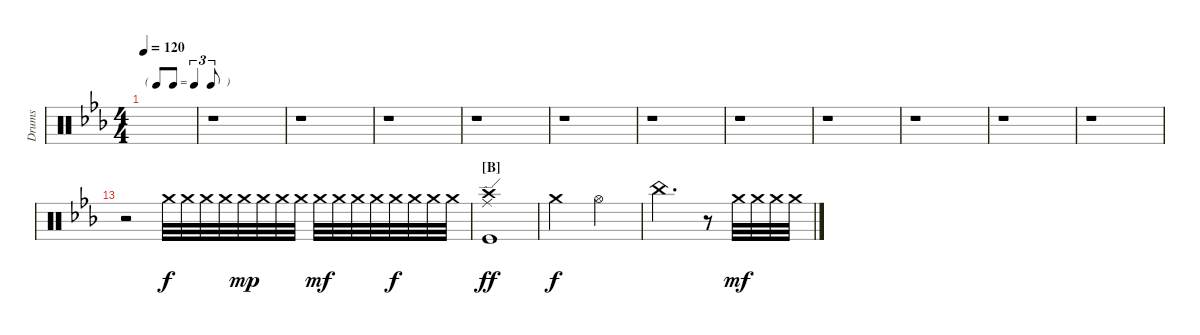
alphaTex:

\bracketExtendMode nobrackets
\otherSystemsTrackNameOrientation horizontal
\defaultBarNumberDisplay FirstOfSystem
\track ("Drumkit" "Drums") {instrument percussion}
\staff {score}
\articulation defaults
\ts (4 4)
\tf triplet8th
\tempo 120
\clef neutral
\ks cminor
|
r.1 |
r.1 |
r.1 |
r.1 |
r.1 |
r.1 |
r.1 |
r.1 |
r.1 |
r.1 |
r.1 |
r.2 "Crash medium (hit)".32 "Crash medium (hit)".32 "Crash medium (hit)".32 "Crash medium (hit)".32 "Crash medium (hit)".32{dy mp} "Crash medium (hit)".32 "Crash medium (hit)".32 "Crash medium (hit)".32 "Crash medium (hit)".32{dy mf} "Crash medium (hit)".32 "Crash medium (hit)".32 "Crash medium (hit)".32 "Crash medium (hit)".32{dy f} "Crash medium (hit)".32 "Crash medium (hit)".32 "Crash medium (hit)".32 |
\section ("B" "")
("Ride (edge)" "Crash high (hit)" "Kick (hit)").1{dy ff} |
"Crash medium (hit)".2{dy f} "Hi-Hat (open)".2 |
"China (hit)".2{d} r.8 "Crash medium (hit)".32{dy mf} "Crash medium (hit)".32 "Crash medium (hit)".32 "Crash medium (hit)".32
